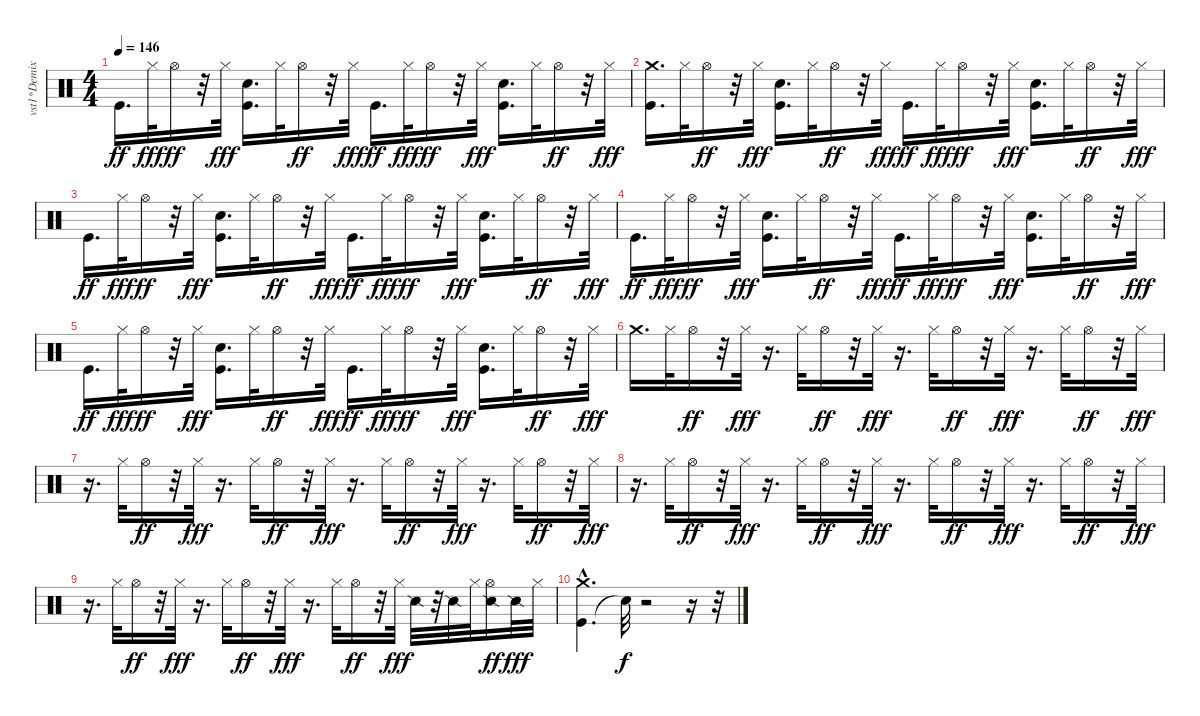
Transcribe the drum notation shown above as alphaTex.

\track ("vst1*Demixed 10" "vst1*Demix") {instrument percussion}
\staff {score}
\articulation defaults
\ts (4 4)
\tempo 146
\clef neutral
\ks c "Kick (hit)".16{d dy ff} "Hi-Hat (closed)".32{dy fff} "Hi-Hat (open)".16{dy ff}
r.32 "Hi-Hat (closed)".32{dy fff} ("Kick (hit)" "Hand Clap (hit)").16{d} "Hi-Hat (closed)".32 "Hi-Hat (open)".16{dy ff} r.32 "Hi-Hat (closed)".32{dy fff} "Kick (hit)".16{d dy ff} "Hi-Hat (closed)".32{dy fff} "Hi-Hat (open)".16{dy ff} r.32 "Hi-Hat (closed)".32{dy fff} ("Kick (hit)" "Hand Clap (hit)").16{d} "Hi-Hat (closed)".32 "Hi-Hat (open)".16{dy ff} r.32 "Hi-Hat (closed)".32{dy fff} |
("Kick (hit)" "Crash medium (hit)").16{d} "Hi-Hat (closed)".32 "Hi-Hat (open)".16{dy ff} r.32 "Hi-Hat (closed)".32{dy fff} ("Kick (hit)" "Hand Clap (hit)").16{d} "Hi-Hat (closed)".32 "Hi-Hat (open)".16{dy ff} r.32 "Hi-Hat (closed)".32{dy fff} "Kick (hit)".16{d dy ff} "Hi-Hat (closed)".32{dy fff} "Hi-Hat (open)".16{dy ff} r.32 "Hi-Hat (closed)".32{dy fff} ("Kick (hit)" "Hand Clap (hit)").16{d} "Hi-Hat (closed)".32 "Hi-Hat (open)".16{dy ff} r.32 "Hi-Hat (closed)".32{dy fff} |
"Kick (hit)".16{d dy ff} "Hi-Hat (closed)".32{dy fff} "Hi-Hat (open)".16{dy ff} r.32 "Hi-Hat (closed)".32{dy fff} ("Kick (hit)" "Hand Clap (hit)").16{d} "Hi-Hat (closed)".32 "Hi-Hat (open)".16{dy ff} r.32 "Hi-Hat (closed)".32{dy fff} "Kick (hit)".16{d dy ff} "Hi-Hat (closed)".32{dy fff} "Hi-Hat (open)".16{dy ff} r.32 "Hi-Hat (closed)".32{dy fff} ("Kick (hit)" "Hand Clap (hit)").16{d} "Hi-Hat (closed)".32 "Hi-Hat (open)".16{dy ff} r.32 "Hi-Hat (closed)".32{dy fff} |
"Kick (hit)".16{d dy ff} "Hi-Hat (closed)".32{dy fff} "Hi-Hat (open)".16{dy ff} r.32 "Hi-Hat (closed)".32{dy fff} ("Kick (hit)" "Hand Clap (hit)").16{d} "Hi-Hat (closed)".32 "Hi-Hat (open)".16{dy ff} r.32 "Hi-Hat (closed)".32{dy fff} "Kick (hit)".16{d dy ff} "Hi-Hat (closed)".32{dy fff} "Hi-Hat (open)".16{dy ff} r.32 "Hi-Hat (closed)".32{dy fff} ("Kick (hit)" "Hand Clap (hit)").16{d} "Hi-Hat (closed)".32 "Hi-Hat (open)".16{dy ff} r.32 "Hi-Hat (closed)".32{dy fff} |
"Kick (hit)".16{d dy ff} "Hi-Hat (closed)".32{dy fff} "Hi-Hat (open)".16{dy ff} r.32 "Hi-Hat (closed)".32{dy fff} ("Kick (hit)" "Hand Clap (hit)").16{d} "Hi-Hat (closed)".32 "Hi-Hat (open)".16{dy ff} r.32 "Hi-Hat (closed)".32{dy fff} "Kick (hit)".16{d dy ff} "Hi-Hat (closed)".32{dy fff} "Hi-Hat (open)".16{dy ff} r.32 "Hi-Hat (closed)".32{dy fff} ("Kick (hit)" "Hand Clap (hit)").16{d} "Hi-Hat (closed)".32 "Hi-Hat (open)".16{dy ff} r.32 "Hi-Hat (closed)".32{dy fff} |
"Crash medium (hit)".16{d} "Hi-Hat (closed)".32 "Hi-Hat (open)".16{dy ff} r.32 "Hi-Hat (closed)".32{dy fff} r.16{d} "Hi-Hat (closed)".32 "Hi-Hat (open)".16{dy ff} r.32 "Hi-Hat (closed)".32{dy fff} r.16{d} "Hi-Hat (closed)".32 "Hi-Hat (open)".16{dy ff} r.32 "Hi-Hat (closed)".32{dy fff} r.16{d} "Hi-Hat (closed)".32 "Hi-Hat (open)".16{dy ff} r.32 "Hi-Hat (closed)".32{dy fff} |
r.16{d} "Hi-Hat (closed)".32 "Hi-Hat (open)".16{dy ff} r.32 "Hi-Hat (closed)".32{dy fff} r.16{d} "Hi-Hat (closed)".32 "Hi-Hat (open)".16{dy ff} r.32 "Hi-Hat (closed)".32{dy fff} r.16{d} "Hi-Hat (closed)".32 "Hi-Hat (open)".16{dy ff} r.32 "Hi-Hat (closed)".32{dy fff} r.16{d} "Hi-Hat (closed)".32 "Hi-Hat (open)".16{dy ff} r.32 "Hi-Hat (closed)".32{dy fff} |
r.16{d} "Hi-Hat (closed)".32 "Hi-Hat (open)".16{dy ff} r.32 "Hi-Hat (closed)".32{dy fff} r.16{d} "Hi-Hat (closed)".32 "Hi-Hat (open)".16{dy ff} r.32 "Hi-Hat (closed)".32{dy fff} r.16{d} "Hi-Hat (closed)".32 "Hi-Hat (open)".16{dy ff} r.32 "Hi-Hat (closed)".32{dy fff} r.16{d} "Hi-Hat (closed)".32 "Hi-Hat (open)".16{dy ff} r.32 "Hi-Hat (closed)".32{dy fff} |
r.16{d} "Hi-Hat (closed)".32 "Hi-Hat (open)".16{dy ff} r.32 "Hi-Hat (closed)".32{dy fff} r.16{d} "Hi-Hat (closed)".32 "Hi-Hat (open)".16{dy ff} r.32 "Hi-Hat (closed)".32{dy fff} r.16{d} "Hi-Hat (closed)".32 "Hi-Hat (open)".16{dy ff} r.32 "Hi-Hat (closed)".32{dy fff} "Snare (side stick) 2".32 r.32 "Snare (side stick) 2".32 "Hi-Hat (closed)".32 ("Snare (side stick) 2" "Hi-Hat (open)").16{dy ff} "Snare (side stick) 2".32{dy fff} "Hi-Hat (closed)".32 |
("Kick (hit)"{hac} "Crash medium (hit)"{hac}).4{d} "Snare (hit)"{t}.32{dy f} r.2 r.16 r.32
